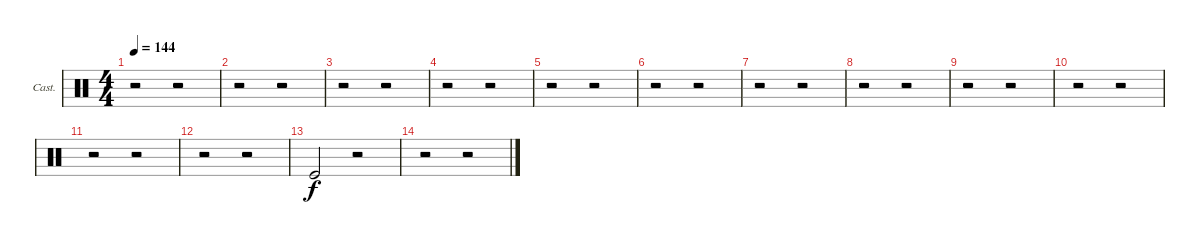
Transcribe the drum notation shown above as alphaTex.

\bracketExtendMode groupsimilarinstruments
\firstSystemTrackNameOrientation horizontal
\otherSystemsTrackNameOrientation horizontal
\track ("Castanets" "Cast.") {instrument percussion}
\staff {score}
\articulation defaults
\ts (4 4)
\tempo 144
\clef neutral
\ks c
r.2{dy f} r.2 |
r.2 r.2 |
r.2 r.2 |
r.2 r.2 |
r.2 r.2 |
r.2 r.2 |
r.2 r.2 |
r.2 r.2 |
r.2 r.2 |
r.2 r.2 |
r.2 r.2 |
r.2 r.2 |
"Kick (hit)".2 r.2 |
r.2 r.2
